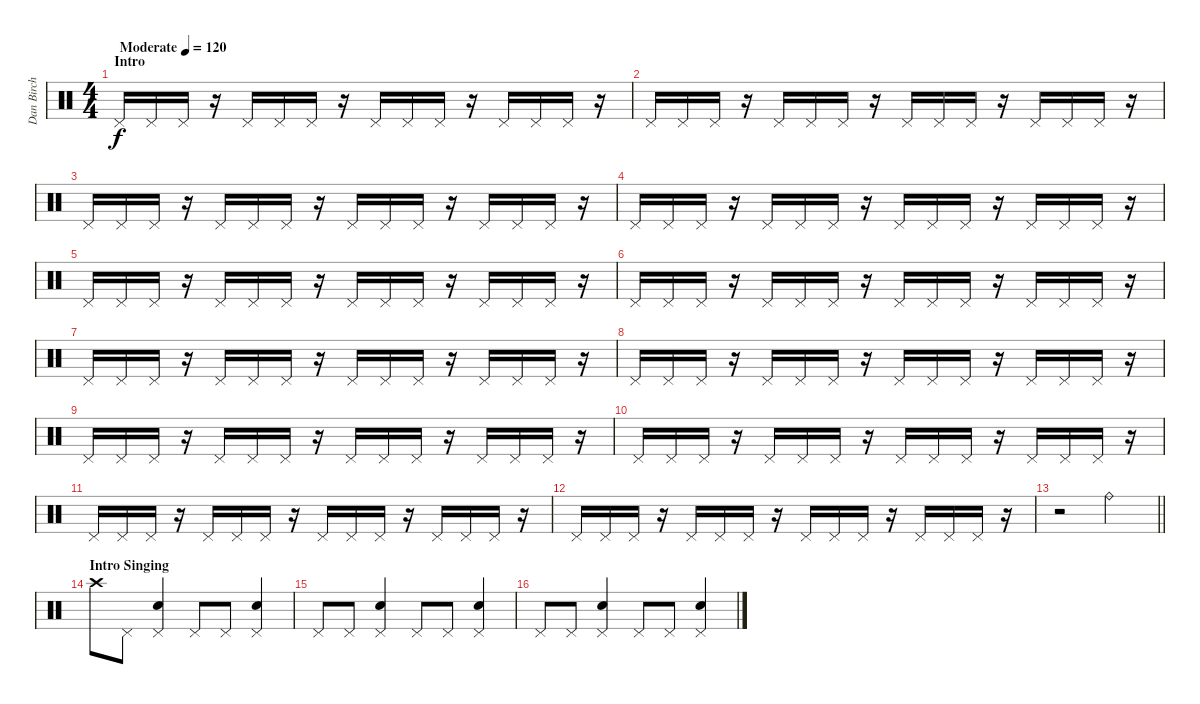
\track ("Dan Birch" "Dan Birch") {instrument percussion}
\staff {score}
\articulation defaults
\ts (4 4)
\section ("" "Intro")
\tempo (120 "Moderate")
\clef neutral
\ks c "Pedal Hi-Hat (hit)".16{dy f} "Pedal Hi-Hat (hit)".16 "Pedal Hi-Hat (hit)".16
r.16 "Pedal Hi-Hat (hit)".16 "Pedal Hi-Hat (hit)".16 "Pedal Hi-Hat (hit)".16 r.16 "Pedal Hi-Hat (hit)".16 "Pedal Hi-Hat (hit)".16 "Pedal Hi-Hat (hit)".16 r.16 "Pedal Hi-Hat (hit)".16 "Pedal Hi-Hat (hit)".16 "Pedal Hi-Hat (hit)".16 r.16 |
"Pedal Hi-Hat (hit)".16 "Pedal Hi-Hat (hit)".16 "Pedal Hi-Hat (hit)".16 r.16 "Pedal Hi-Hat (hit)".16 "Pedal Hi-Hat (hit)".16 "Pedal Hi-Hat (hit)".16 r.16 "Pedal Hi-Hat (hit)".16 "Pedal Hi-Hat (hit)".16 "Pedal Hi-Hat (hit)".16 r.16 "Pedal Hi-Hat (hit)".16 "Pedal Hi-Hat (hit)".16 "Pedal Hi-Hat (hit)".16 r.16 |
"Pedal Hi-Hat (hit)".16 "Pedal Hi-Hat (hit)".16 "Pedal Hi-Hat (hit)".16 r.16 "Pedal Hi-Hat (hit)".16 "Pedal Hi-Hat (hit)".16 "Pedal Hi-Hat (hit)".16 r.16 "Pedal Hi-Hat (hit)".16 "Pedal Hi-Hat (hit)".16 "Pedal Hi-Hat (hit)".16 r.16 "Pedal Hi-Hat (hit)".16 "Pedal Hi-Hat (hit)".16 "Pedal Hi-Hat (hit)".16 r.16 |
"Pedal Hi-Hat (hit)".16 "Pedal Hi-Hat (hit)".16 "Pedal Hi-Hat (hit)".16 r.16 "Pedal Hi-Hat (hit)".16 "Pedal Hi-Hat (hit)".16 "Pedal Hi-Hat (hit)".16 r.16 "Pedal Hi-Hat (hit)".16 "Pedal Hi-Hat (hit)".16 "Pedal Hi-Hat (hit)".16 r.16 "Pedal Hi-Hat (hit)".16 "Pedal Hi-Hat (hit)".16 "Pedal Hi-Hat (hit)".16 r.16 |
"Pedal Hi-Hat (hit)".16 "Pedal Hi-Hat (hit)".16 "Pedal Hi-Hat (hit)".16 r.16 "Pedal Hi-Hat (hit)".16 "Pedal Hi-Hat (hit)".16 "Pedal Hi-Hat (hit)".16 r.16 "Pedal Hi-Hat (hit)".16 "Pedal Hi-Hat (hit)".16 "Pedal Hi-Hat (hit)".16 r.16 "Pedal Hi-Hat (hit)".16 "Pedal Hi-Hat (hit)".16 "Pedal Hi-Hat (hit)".16 r.16 |
"Pedal Hi-Hat (hit)".16 "Pedal Hi-Hat (hit)".16 "Pedal Hi-Hat (hit)".16 r.16 "Pedal Hi-Hat (hit)".16 "Pedal Hi-Hat (hit)".16 "Pedal Hi-Hat (hit)".16 r.16 "Pedal Hi-Hat (hit)".16 "Pedal Hi-Hat (hit)".16 "Pedal Hi-Hat (hit)".16 r.16 "Pedal Hi-Hat (hit)".16 "Pedal Hi-Hat (hit)".16 "Pedal Hi-Hat (hit)".16 r.16 |
"Pedal Hi-Hat (hit)".16 "Pedal Hi-Hat (hit)".16 "Pedal Hi-Hat (hit)".16 r.16 "Pedal Hi-Hat (hit)".16 "Pedal Hi-Hat (hit)".16 "Pedal Hi-Hat (hit)".16 r.16 "Pedal Hi-Hat (hit)".16 "Pedal Hi-Hat (hit)".16 "Pedal Hi-Hat (hit)".16 r.16 "Pedal Hi-Hat (hit)".16 "Pedal Hi-Hat (hit)".16 "Pedal Hi-Hat (hit)".16 r.16 |
"Pedal Hi-Hat (hit)".16 "Pedal Hi-Hat (hit)".16 "Pedal Hi-Hat (hit)".16 r.16 "Pedal Hi-Hat (hit)".16 "Pedal Hi-Hat (hit)".16 "Pedal Hi-Hat (hit)".16 r.16 "Pedal Hi-Hat (hit)".16 "Pedal Hi-Hat (hit)".16 "Pedal Hi-Hat (hit)".16 r.16 "Pedal Hi-Hat (hit)".16 "Pedal Hi-Hat (hit)".16 "Pedal Hi-Hat (hit)".16 r.16 |
"Pedal Hi-Hat (hit)".16 "Pedal Hi-Hat (hit)".16 "Pedal Hi-Hat (hit)".16 r.16 "Pedal Hi-Hat (hit)".16 "Pedal Hi-Hat (hit)".16 "Pedal Hi-Hat (hit)".16 r.16 "Pedal Hi-Hat (hit)".16 "Pedal Hi-Hat (hit)".16 "Pedal Hi-Hat (hit)".16 r.16 "Pedal Hi-Hat (hit)".16 "Pedal Hi-Hat (hit)".16 "Pedal Hi-Hat (hit)".16 r.16 |
"Pedal Hi-Hat (hit)".16 "Pedal Hi-Hat (hit)".16 "Pedal Hi-Hat (hit)".16 r.16 "Pedal Hi-Hat (hit)".16 "Pedal Hi-Hat (hit)".16 "Pedal Hi-Hat (hit)".16 r.16 "Pedal Hi-Hat (hit)".16 "Pedal Hi-Hat (hit)".16 "Pedal Hi-Hat (hit)".16 r.16 "Pedal Hi-Hat (hit)".16 "Pedal Hi-Hat (hit)".16 "Pedal Hi-Hat (hit)".16 r.16 |
"Pedal Hi-Hat (hit)".16 "Pedal Hi-Hat (hit)".16 "Pedal Hi-Hat (hit)".16 r.16 "Pedal Hi-Hat (hit)".16 "Pedal Hi-Hat (hit)".16 "Pedal Hi-Hat (hit)".16 r.16 "Pedal Hi-Hat (hit)".16 "Pedal Hi-Hat (hit)".16 "Pedal Hi-Hat (hit)".16 r.16 "Pedal Hi-Hat (hit)".16 "Pedal Hi-Hat (hit)".16 "Pedal Hi-Hat (hit)".16 r.16 |
"Pedal Hi-Hat (hit)".16 "Pedal Hi-Hat (hit)".16 "Pedal Hi-Hat (hit)".16 r.16 "Pedal Hi-Hat (hit)".16 "Pedal Hi-Hat (hit)".16 "Pedal Hi-Hat (hit)".16 r.16 "Pedal Hi-Hat (hit)".16 "Pedal Hi-Hat (hit)".16 "Pedal Hi-Hat (hit)".16 r.16 "Pedal Hi-Hat (hit)".16 "Pedal Hi-Hat (hit)".16 "Pedal Hi-Hat (hit)".16 r.16 |
\barLineRight lightlight
r.2 "Ride (bell)".2 |
\section ("" "Intro Singing")
"Crash high (hit)".8 "Pedal Hi-Hat (hit)".8 ("Pedal Hi-Hat (hit)" "Snare (hit) 2").4 "Pedal Hi-Hat (hit)".8 "Pedal Hi-Hat (hit)".8 ("Pedal Hi-Hat (hit)" "Snare (hit) 2").4 |
"Pedal Hi-Hat (hit)".8 "Pedal Hi-Hat (hit)".8 ("Pedal Hi-Hat (hit)" "Snare (hit) 2").4 "Pedal Hi-Hat (hit)".8 "Pedal Hi-Hat (hit)".8 ("Pedal Hi-Hat (hit)" "Snare (hit) 2").4 |
"Pedal Hi-Hat (hit)".8 "Pedal Hi-Hat (hit)".8 ("Pedal Hi-Hat (hit)" "Snare (hit) 2").4 "Pedal Hi-Hat (hit)".8 "Pedal Hi-Hat (hit)".8 ("Pedal Hi-Hat (hit)" "Snare (hit) 2").4
